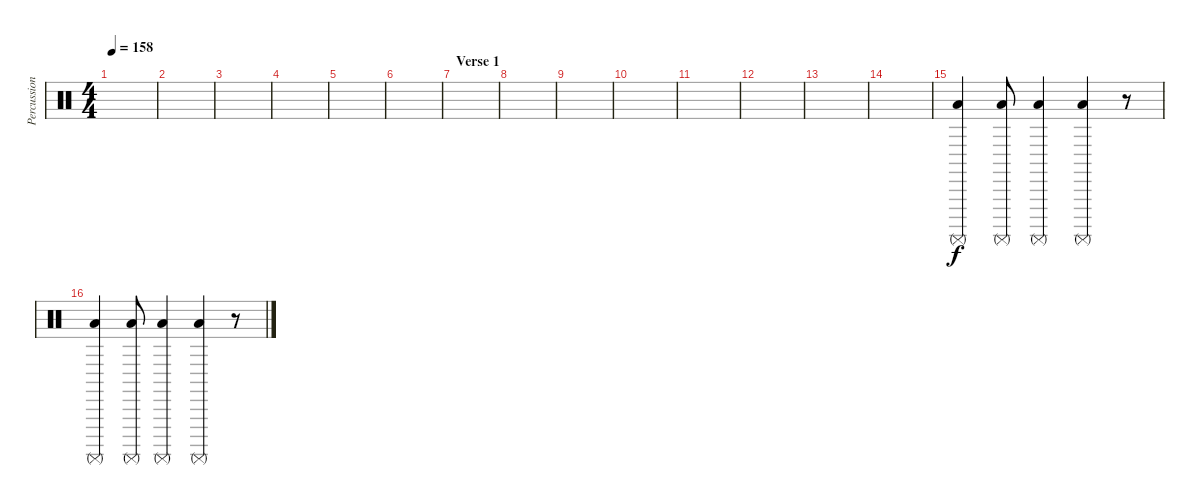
\track ("Percussion" "Percussion") {instrument percussion}
\staff {score}
\articulation defaults
\ts (4 4)
\tempo 158
\clef neutral
\ks c
|
|
|
|
|
|
\section ("" "Verse 1")
|
|
|
|
|
|
|
|
("Low Floor Tom (hit)" "Surdo (mute)").4 ("Low Floor Tom (hit)" "Surdo (mute)").8 ("Low Floor Tom (hit)" "Surdo (mute)").4 ("Low Floor Tom (hit)" "Surdo (mute)").4 r.8 |
("Low Floor Tom (hit)" "Surdo (mute)").4 ("Low Floor Tom (hit)" "Surdo (mute)").8 ("Low Floor Tom (hit)" "Surdo (mute)").4 ("Low Floor Tom (hit)" "Surdo (mute)").4 r.8
